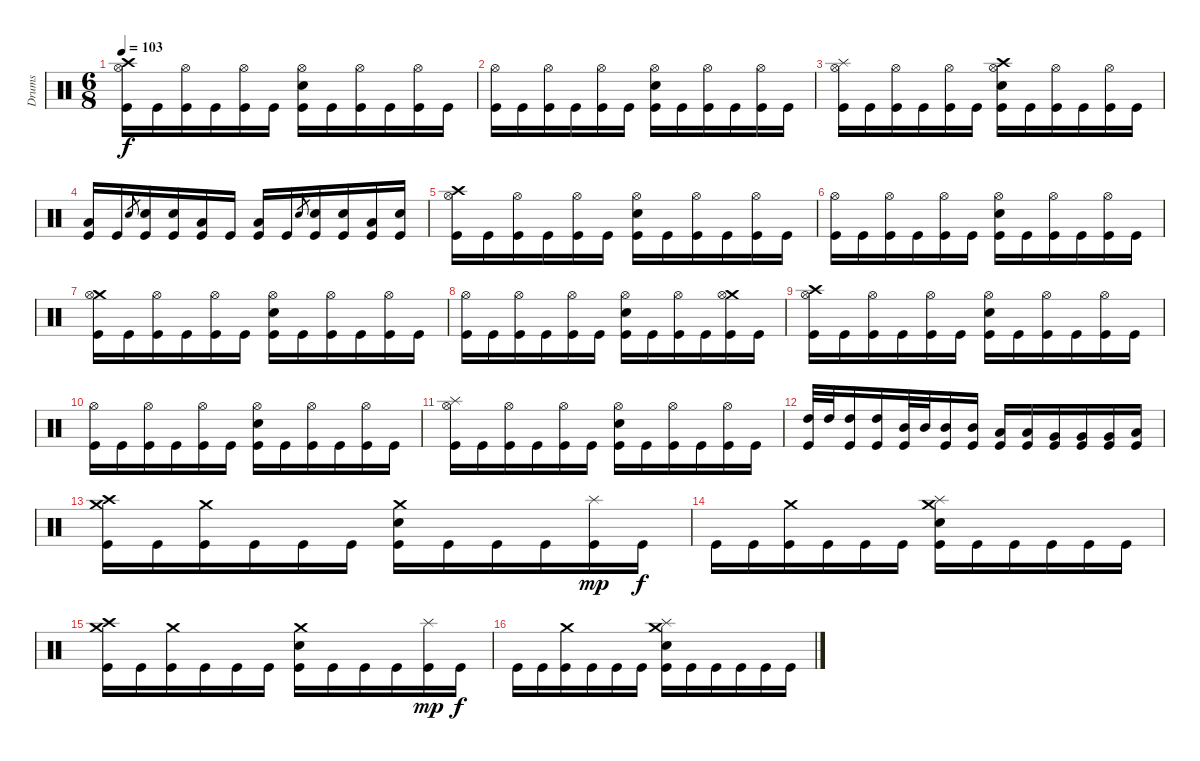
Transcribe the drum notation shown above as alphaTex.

\track ("Drums" "Drums") {instrument percussion}
\staff {score}
\articulation defaults
\ts (6 8)
\tempo 103
\clef neutral
\ks c
("Crash high (hit)" "Hi-Hat (open)" "Kick (hit)").16{dy f} "Kick (hit)".16 ("Hi-Hat (open)" "Kick (hit)").16 "Kick (hit)".16 ("Hi-Hat (open)" "Kick (hit)").16 "Kick (hit)".16 ("Hi-Hat (open)" "Electric Snare (hit)" "Kick (hit)").16 "Kick (hit)".16 ("Hi-Hat (open)" "Kick (hit)").16 "Kick (hit)".16 ("Hi-Hat (open)" "Kick (hit)").16 "Kick (hit)".16 |
("Hi-Hat (open)" "Kick (hit)").16 "Kick (hit)".16 ("Hi-Hat (open)" "Kick (hit)").16 "Kick (hit)".16 ("Hi-Hat (open)" "Kick (hit)").16 "Kick (hit)".16 ("Hi-Hat (open)" "Electric Snare (hit)" "Kick (hit)").16 "Kick (hit)".16 ("Hi-Hat (open)" "Kick (hit)").16 "Kick (hit)".16 ("Hi-Hat (open)" "Kick (hit)").16 "Kick (hit)".16 |
("Splash (hit)" "Hi-Hat (open)" "Kick (hit)").16 "Kick (hit)".16 ("Hi-Hat (open)" "Kick (hit)").16 "Kick (hit)".16 ("Hi-Hat (open)" "Kick (hit)").16 "Kick (hit)".16 ("Crash high (hit)" "Hi-Hat (open)" "Electric Snare (hit)" "Kick (hit)").16 "Kick (hit)".16 ("Hi-Hat (open)" "Kick (hit)").16 "Kick (hit)".16 ("Hi-Hat (open)" "Kick (hit)").16 "Kick (hit)".16 |
("Low Floor Tom (hit)" "Kick (hit)").16 "Kick (hit)".16 "Electric Snare (hit)".8{gr} ("Electric Snare (hit)" "Kick (hit)").16 ("Electric Snare (hit)" "Kick (hit)").16 ("Low Floor Tom (hit)" "Kick (hit)").16 "Kick (hit)".16 ("Low Floor Tom (hit)" "Kick (hit)").16 "Kick (hit)".16 "Electric Snare (hit)".8{gr} ("Electric Snare (hit)" "Kick (hit)").16 ("Electric Snare (hit)" "Kick (hit)").16 ("Low Floor Tom (hit)" "Kick (hit)").16 ("Electric Snare (hit)" "Kick (hit)").16 |
("Crash high (hit)" "Hi-Hat (open)" "Kick (hit)").16 "Kick (hit)".16 ("Hi-Hat (open)" "Kick (hit)").16 "Kick (hit)".16 ("Hi-Hat (open)" "Kick (hit)").16 "Kick (hit)".16 ("Hi-Hat (open)" "Electric Snare (hit)" "Kick (hit)").16 "Kick (hit)".16 ("Hi-Hat (open)" "Kick (hit)").16 "Kick (hit)".16 ("Hi-Hat (open)" "Kick (hit)").16 "Kick (hit)".16 |
("Hi-Hat (open)" "Kick (hit)").16 "Kick (hit)".16 ("Hi-Hat (open)" "Kick (hit)").16 "Kick (hit)".16 ("Hi-Hat (open)" "Kick (hit)").16 "Kick (hit)".16 ("Hi-Hat (open)" "Electric Snare (hit)" "Kick (hit)").16 "Kick (hit)".16 ("Hi-Hat (open)" "Kick (hit)").16 "Kick (hit)".16 ("Hi-Hat (open)" "Kick (hit)").16 "Kick (hit)".16 |
("Crash medium (hit)" "Hi-Hat (open)" "Kick (hit)").16 "Kick (hit)".16 ("Hi-Hat (open)" "Kick (hit)").16 "Kick (hit)".16 ("Hi-Hat (open)" "Kick (hit)").16 "Kick (hit)".16 ("Hi-Hat (open)" "Electric Snare (hit)" "Kick (hit)").16 "Kick (hit)".16 ("Hi-Hat (open)" "Kick (hit)").16 "Kick (hit)".16 ("Hi-Hat (open)" "Kick (hit)").16 "Kick (hit)".16 |
("Hi-Hat (open)" "Kick (hit)").16 "Kick (hit)".16 ("Hi-Hat (open)" "Kick (hit)").16 "Kick (hit)".16 ("Hi-Hat (open)" "Kick (hit)").16 "Kick (hit)".16 ("Hi-Hat (open)" "Electric Snare (hit)" "Kick (hit)").16 "Kick (hit)".16 ("Hi-Hat (open)" "Kick (hit)").16 "Kick (hit)".16 ("Crash medium (hit)" "Hi-Hat (open)" "Kick (hit)").16 "Kick (hit)".16 |
("Crash high (hit)" "Hi-Hat (open)" "Kick (hit)").16 "Kick (hit)".16 ("Hi-Hat (open)" "Kick (hit)").16 "Kick (hit)".16 ("Hi-Hat (open)" "Kick (hit)").16 "Kick (hit)".16 ("Hi-Hat (open)" "Electric Snare (hit)" "Kick (hit)").16 "Kick (hit)".16 ("Hi-Hat (open)" "Kick (hit)").16 "Kick (hit)".16 ("Hi-Hat (open)" "Kick (hit)").16 "Kick (hit)".16 |
("Hi-Hat (open)" "Kick (hit)").16 "Kick (hit)".16 ("Hi-Hat (open)" "Kick (hit)").16 "Kick (hit)".16 ("Hi-Hat (open)" "Kick (hit)").16 "Kick (hit)".16 ("Hi-Hat (open)" "Electric Snare (hit)" "Kick (hit)").16 "Kick (hit)".16 ("Hi-Hat (open)" "Kick (hit)").16 "Kick (hit)".16 ("Hi-Hat (open)" "Kick (hit)").16 "Kick (hit)".16 |
("Splash (hit)" "Hi-Hat (open)" "Kick (hit)").16 "Kick (hit)".16 ("Hi-Hat (open)" "Kick (hit)").16 "Kick (hit)".16 ("Hi-Hat (open)" "Kick (hit)").16 "Kick (hit)".16 ("Hi-Hat (open)" "Electric Snare (hit)" "Kick (hit)").16 "Kick (hit)".16 ("Hi-Hat (open)" "Kick (hit)").16 "Kick (hit)".16 ("Hi-Hat (open)" "Kick (hit)").16 "Kick (hit)".16 |
("High Tom (hit)" "Kick (hit)").32 "High Tom (hit)".32 ("High Tom (hit)" "Kick (hit)").16 ("High Tom (hit)" "Kick (hit)").16 ("Mid Tom (hit)" "Kick (hit)").32 "Mid Tom (hit)".32 ("Mid Tom (hit)" "Kick (hit)").16 ("Mid Tom (hit)" "Kick (hit)").16 ("Low Tom (hit)" "Kick (hit)").16 ("Low Tom (hit)" "Kick (hit)").16 ("Very Low Tom (hit)" "Kick (hit)").16 ("Very Low Tom (hit)" "Kick (hit)").16 ("Very Low Tom (hit)" "Kick (hit)").16 ("Low Floor Tom (hit)" "Kick (hit)").16 |
("Crash high (hit)" "Crash medium (hit)" "Kick (hit)").16 "Kick (hit)".16 ("Crash medium (hit)" "Kick (hit)").16 "Kick (hit)".16 "Kick (hit)".16 "Kick (hit)".16 ("Crash medium (hit)" "Electric Snare (hit)" "Kick (hit)").16 "Kick (hit)".16 "Kick (hit)".16 "Kick (hit)".16 ("Splash (hit)" "Kick (hit)").16{dy mp} "Kick (hit)".16{dy f} |
"Kick (hit)".16 "Kick (hit)".16 ("Crash medium (hit)" "Kick (hit)").16 "Kick (hit)".16 "Kick (hit)".16 "Kick (hit)".16 ("Splash (hit)" "Crash medium (hit)" "Electric Snare (hit)" "Kick (hit)").16 "Kick (hit)".16 "Kick (hit)".16 "Kick (hit)".16 "Kick (hit)".16 "Kick (hit)".16 |
("Crash high (hit)" "Crash medium (hit)" "Kick (hit)").16 "Kick (hit)".16 ("Crash medium (hit)" "Kick (hit)").16 "Kick (hit)".16 "Kick (hit)".16 "Kick (hit)".16 ("Crash medium (hit)" "Electric Snare (hit)" "Kick (hit)").16 "Kick (hit)".16 "Kick (hit)".16 "Kick (hit)".16 ("Splash (hit)" "Kick (hit)").16{dy mp} "Kick (hit)".16{dy f} |
"Kick (hit)".16 "Kick (hit)".16 ("Crash medium (hit)" "Kick (hit)").16 "Kick (hit)".16 "Kick (hit)".16 "Kick (hit)".16 ("Splash (hit)" "Crash medium (hit)" "Electric Snare (hit)" "Kick (hit)").16 "Kick (hit)".16 "Kick (hit)".16 "Kick (hit)".16 "Kick (hit)".16 "Kick (hit)".16
